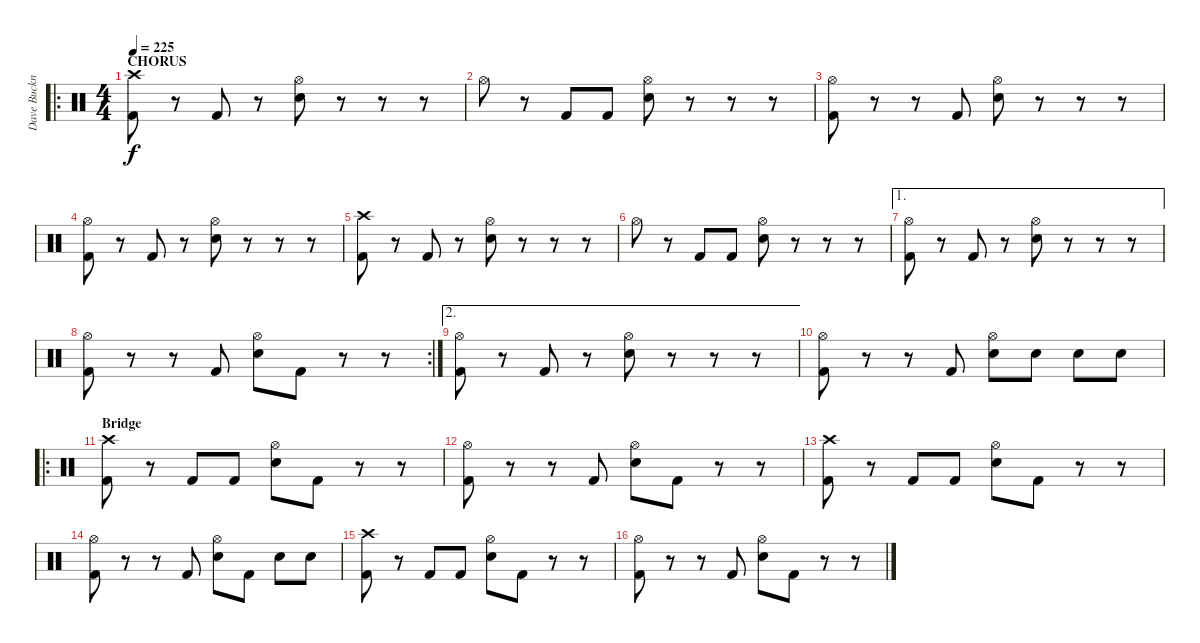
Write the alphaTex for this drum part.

\track ("Dave Buckner" "Dave Buckn") {instrument percussion}
\staff {score}
\articulation defaults
\ro
\ts (4 4)
\section ("" "CHORUS")
\tempo 225
\clef neutral
\ks c
("Crash high (hit)" "Kick (hit) 2").8{dy f} r.8 "Kick (hit) 2".8 r.8 ("Hi-Hat (open)" "Electric Snare (hit)").8 r.8 r.8 r.8 |
"Hi-Hat (open)".8 r.8 "Kick (hit) 2".8 "Kick (hit) 2".8 ("Hi-Hat (open)" "Electric Snare (hit)").8 r.8 r.8 r.8 |
("Hi-Hat (open)" "Kick (hit) 2").8 r.8 r.8 "Kick (hit) 2".8 ("Hi-Hat (open)" "Electric Snare (hit)").8 r.8 r.8 r.8 |
("Hi-Hat (open)" "Kick (hit) 2").8 r.8 "Kick (hit) 2".8 r.8 ("Hi-Hat (open)" "Electric Snare (hit)").8 r.8 r.8 r.8 |
("Crash high (hit)" "Kick (hit) 2").8 r.8 "Kick (hit) 2".8 r.8 ("Hi-Hat (open)" "Electric Snare (hit)").8 r.8 r.8 r.8 |
"Hi-Hat (open)".8 r.8 "Kick (hit) 2".8 "Kick (hit) 2".8 ("Hi-Hat (open)" "Electric Snare (hit)").8 r.8 r.8 r.8 |
\ae 1
("Hi-Hat (open)" "Kick (hit) 2").8 r.8 "Kick (hit) 2".8 r.8 ("Hi-Hat (open)" "Electric Snare (hit)").8 r.8 r.8 r.8 |
\rc 2
("Hi-Hat (open)" "Kick (hit) 2").8 r.8 r.8 "Kick (hit) 2".8 ("Hi-Hat (open)" "Electric Snare (hit)").8 "Kick (hit) 2".8 r.8 r.8 |
\ae 2
("Hi-Hat (open)" "Kick (hit) 2").8 r.8 "Kick (hit) 2".8 r.8 ("Hi-Hat (open)" "Electric Snare (hit)").8 r.8 r.8 r.8 |
("Hi-Hat (open)" "Kick (hit) 2").8 r.8 r.8 "Kick (hit) 2".8 ("Hi-Hat (open)" "Electric Snare (hit)").8 "Electric Snare (hit)".8 "Electric Snare (hit)".8 "Electric Snare (hit)".8 |
\ro
\section ("" "Bridge")
("Crash high (hit)" "Kick (hit) 2").8 r.8 "Kick (hit) 2".8 "Kick (hit) 2".8 ("Hi-Hat (open)" "Electric Snare (hit)").8 "Kick (hit) 2".8 r.8 r.8 |
("Hi-Hat (open)" "Kick (hit) 2").8 r.8 r.8 "Kick (hit) 2".8 ("Hi-Hat (open)" "Electric Snare (hit)").8 "Kick (hit) 2".8 r.8 r.8 |
("Crash high (hit)" "Kick (hit) 2").8 r.8 "Kick (hit) 2".8 "Kick (hit) 2".8 ("Hi-Hat (open)" "Electric Snare (hit)").8 "Kick (hit) 2".8 r.8 r.8 |
("Hi-Hat (open)" "Kick (hit) 2").8 r.8 r.8 "Kick (hit) 2".8 ("Hi-Hat (open)" "Electric Snare (hit)").8 "Kick (hit) 2".8 "Electric Snare (hit)".8 "Electric Snare (hit)".8 |
("Crash high (hit)" "Kick (hit) 2").8 r.8 "Kick (hit) 2".8 "Kick (hit) 2".8 ("Hi-Hat (open)" "Electric Snare (hit)").8 "Kick (hit) 2".8 r.8 r.8 |
("Hi-Hat (open)" "Kick (hit) 2").8 r.8 r.8 "Kick (hit) 2".8 ("Hi-Hat (open)" "Electric Snare (hit)").8 "Kick (hit) 2".8 r.8 r.8
